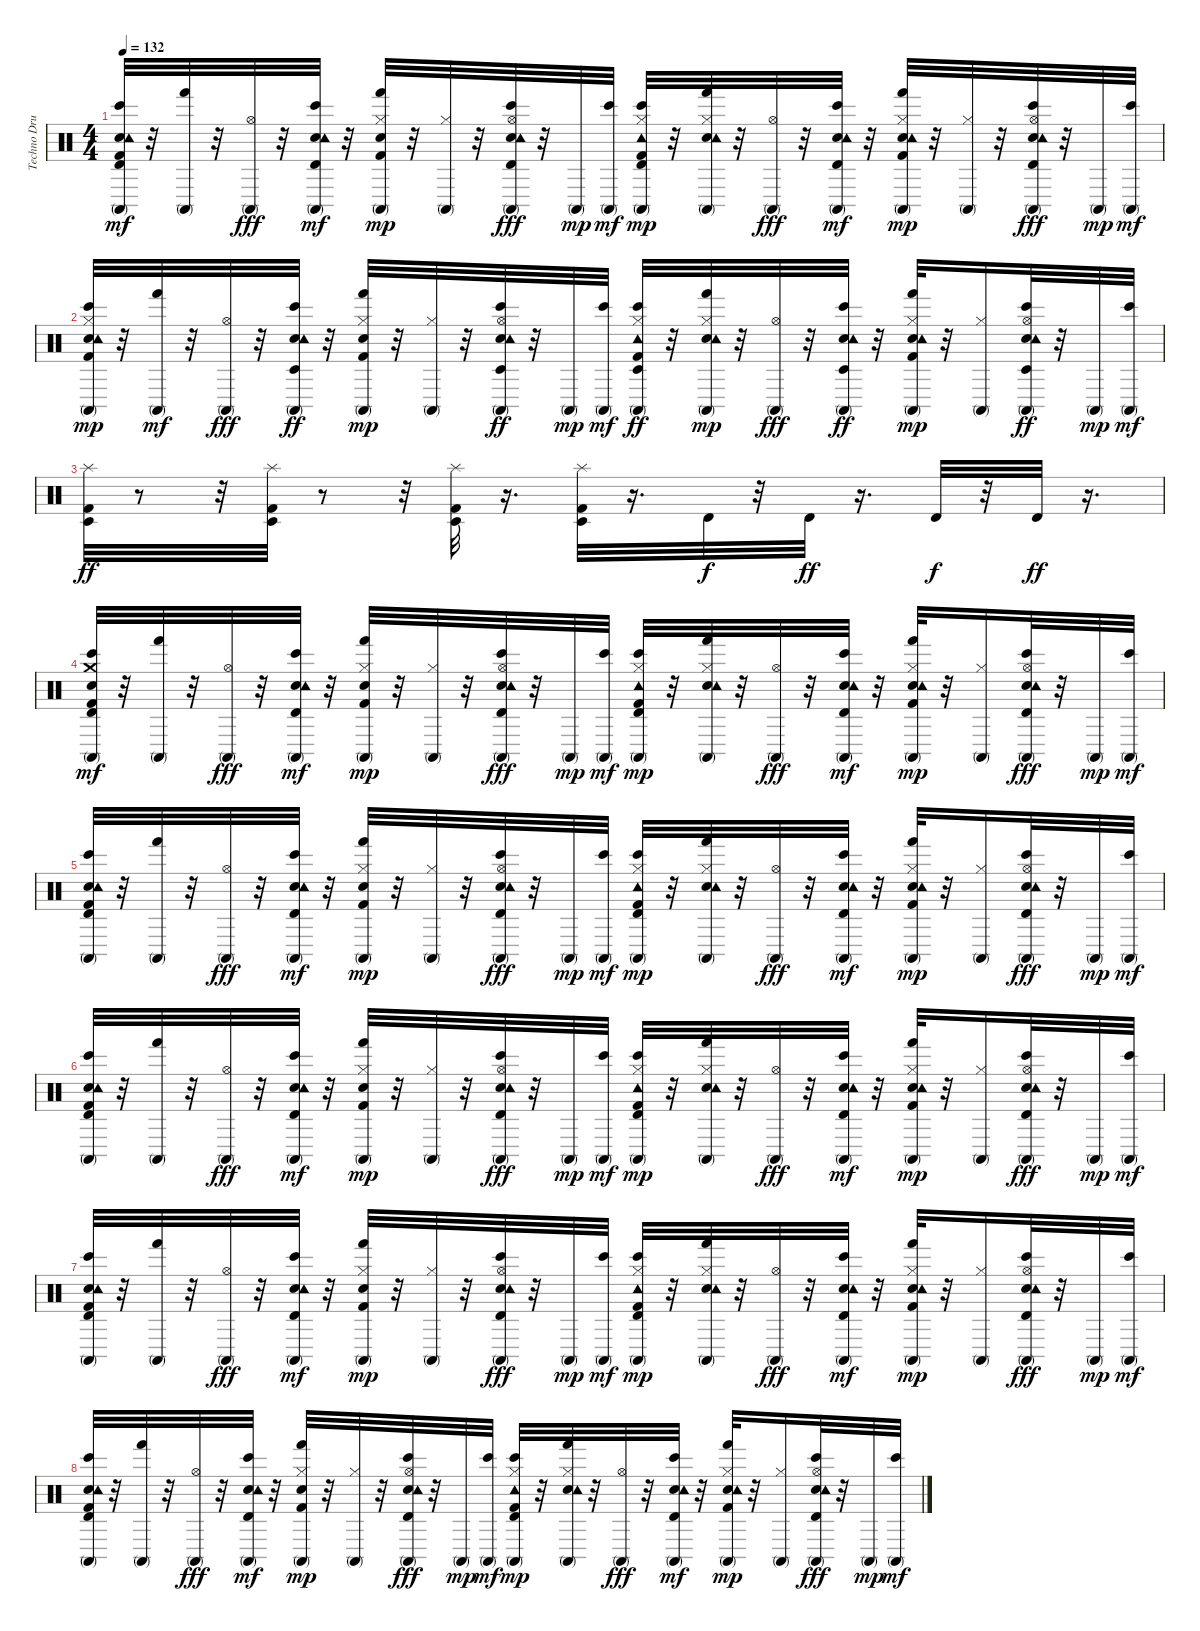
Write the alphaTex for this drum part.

\track ("Techno Drums" "Techno Dru") {instrument percussion}
\staff {score}
\articulation defaults
\ts (4 4)
\tempo 132
\clef neutral
\ks c
("Kick (hit) 2" "Hand Clap (hit)" "Tambourine (hit)" "Conga high (mute)" "Bongo High (hit)" "Timbale high (hit)").32{dy mf} r.32 ("Conga high (mute)" "Hand (hit)").32 r.32 ("Conga high (mute)" "Hi-Hat (open)").32{dy fff} r.32 ("Hand Clap (hit)" "Tambourine (hit)" "Conga high (mute)" "Bongo High (hit)" "Timbale high (hit)").32{dy mf} r.32 ("Kick (hit) 2" "Hand Clap (hit)" "Conga high (mute)" "Hand (hit)" "Hi-Hat (closed)").32{dy mp} r.32 ("Conga high (mute)" "Hi-Hat (closed)").32 r.32 ("Hand Clap (hit)" "Tambourine (hit)" "Conga high (mute)" "Bongo High (hit)" "Timbale high (hit)" "Hi-Hat (open)").32{dy fff} r.32 "Conga high (mute)".32{dy mp} ("Conga high (mute)" "Bongo High (hit)").32{dy mf} ("Kick (hit) 2" "Tambourine (hit)" "Conga high (mute)" "Bongo High (hit)" "Timbale high (hit)" "Hi-Hat (closed)").32{dy mp} r.32 ("Hand Clap (hit)" "Tambourine (hit)" "Conga high (mute)" "Hand (hit)" "Hi-Hat (closed)").32 r.32 ("Conga high (mute)" "Hi-Hat (open)").32{dy fff} r.32 ("Hand Clap (hit)" "Tambourine (hit)" "Conga high (mute)" "Bongo High (hit)" "Timbale high (hit)").32{dy mf} r.32 ("Kick (hit) 2" "Hand Clap (hit)" "Tambourine (hit)" "Conga high (mute)" "Hand (hit)" "Hi-Hat (closed)").32{dy mp} r.32 ("Conga high (mute)" "Hi-Hat (closed)").32 r.32 ("Hand Clap (hit)" "Tambourine (hit)" "Conga high (mute)" "Bongo High (hit)" "Timbale high (hit)" "Hi-Hat (open)").32{dy fff} r.32 "Conga high (mute)".32{dy mp} ("Conga high (mute)" "Bongo High (hit)").32{dy mf} |
("Kick (hit) 2" "Hand Clap (hit)" "Tambourine (hit)" "Conga high (mute)" "Bongo High (hit)" "Hi-Hat (closed)").32{dy mp} r.32 ("Conga high (mute)" "Hand (hit)").32{dy mf} r.32 ("Conga high (mute)" "Hi-Hat (open)").32{dy fff} r.32 ("Hand Clap (hit)" "Tambourine (hit)" "Conga high (mute)" "Bongo High (hit)" "Timbale low (hit)").32{dy ff} r.32 ("Kick (hit) 2" "Hand Clap (hit)" "Conga high (mute)" "Hand (hit)" "Hi-Hat (closed)").32{dy mp} r.32 ("Conga high (mute)" "Hi-Hat (closed)").32 r.32 ("Hand Clap (hit)" "Tambourine (hit)" "Conga high (mute)" "Bongo High (hit)" "Hi-Hat (open)" "Timbale low (hit)").32{dy ff} r.32 "Conga high (mute)".32{dy mp} ("Conga high (mute)" "Bongo High (hit)").32{dy mf} ("Kick (hit) 2" "Tambourine (hit)" "Conga high (mute)" "Bongo High (hit)" "Hi-Hat (closed)" "Timbale low (hit)").32{dy ff} r.32 ("Hand Clap (hit)" "Tambourine (hit)" "Conga high (mute)" "Hand (hit)" "Hi-Hat (closed)").32{dy mp} r.32 ("Conga high (mute)" "Hi-Hat (open)").32{dy fff} r.32 ("Hand Clap (hit)" "Tambourine (hit)" "Conga high (mute)" "Bongo High (hit)" "Timbale low (hit)").32{dy ff} r.32 ("Kick (hit) 2" "Hand Clap (hit)" "Tambourine (hit)" "Conga high (mute)" "Hand (hit)" "Hi-Hat (closed)").32{dy mp} r.32 ("Conga high (mute)" "Hi-Hat (closed)").16 ("Hand Clap (hit)" "Tambourine (hit)" "Conga high (mute)" "Bongo High (hit)" "Hi-Hat (open)" "Timbale low (hit)").32{dy ff} r.32 "Conga high (mute)".32{dy mp} ("Conga high (mute)" "Bongo High (hit)").32{dy mf} |
("Kick (hit) 2" "Timbale low (hit)" "Splash (hit)").32{dy ff} r.8 r.32 ("Kick (hit) 2" "Timbale low (hit)" "Splash (hit)").32 r.8 r.32 ("Kick (hit) 2" "Timbale low (hit)" "Splash (hit)").32 r.16{d} ("Timbale low (hit)" "Splash (hit)" "Kick (hit) 2").32 r.16{d} "Timbale high (hit)".32{dy f} r.32 "Timbale high (hit)".32{dy ff} r.16{d} "Timbale high (hit)".32{dy f} r.32 "Timbale high (hit)".32{dy ff} r.16{d} |
("Kick (hit) 2" "Hand Clap (hit)" "Crash medium (hit)" "Conga high (mute)" "Bongo High (hit)" "Timbale high (hit)").32{dy mf} r.32 ("Conga high (mute)" "Hand (hit)").32 r.32 ("Conga high (mute)" "Hi-Hat (open)").32{dy fff} r.32 ("Hand Clap (hit)" "Tambourine (hit)" "Conga high (mute)" "Bongo High (hit)" "Timbale high (hit)").32{dy mf} r.32 ("Kick (hit) 2" "Hand Clap (hit)" "Conga high (mute)" "Hand (hit)" "Hi-Hat (closed)").32{dy mp} r.32 ("Conga high (mute)" "Hi-Hat (closed)").32 r.32 ("Hand Clap (hit)" "Tambourine (hit)" "Conga high (mute)" "Bongo High (hit)" "Timbale high (hit)" "Hi-Hat (open)").32{dy fff} r.32 "Conga high (mute)".32{dy mp} ("Conga high (mute)" "Bongo High (hit)").32{dy mf} ("Kick (hit) 2" "Tambourine (hit)" "Conga high (mute)" "Bongo High (hit)" "Timbale high (hit)" "Hi-Hat (closed)").32{dy mp} r.32 ("Hand Clap (hit)" "Tambourine (hit)" "Conga high (mute)" "Hand (hit)" "Hi-Hat (closed)").32 r.32 ("Conga high (mute)" "Hi-Hat (open)").32{dy fff} r.32 ("Hand Clap (hit)" "Tambourine (hit)" "Conga high (mute)" "Bongo High (hit)" "Timbale high (hit)").32{dy mf} r.32 ("Kick (hit) 2" "Hand Clap (hit)" "Tambourine (hit)" "Conga high (mute)" "Hand (hit)" "Hi-Hat (closed)").32{dy mp} r.32 ("Conga high (mute)" "Hi-Hat (closed)").16 ("Hand Clap (hit)" "Tambourine (hit)" "Conga high (mute)" "Bongo High (hit)" "Timbale high (hit)" "Hi-Hat (open)").32{dy fff} r.32 "Conga high (mute)".32{dy mp} ("Conga high (mute)" "Bongo High (hit)").32{dy mf} |
("Kick (hit) 2" "Hand Clap (hit)" "Tambourine (hit)" "Conga high (mute)" "Bongo High (hit)" "Timbale high (hit)").32 r.32 ("Conga high (mute)" "Hand (hit)").32 r.32 ("Conga high (mute)" "Hi-Hat (open)").32{dy fff} r.32 ("Hand Clap (hit)" "Tambourine (hit)" "Conga high (mute)" "Bongo High (hit)" "Timbale high (hit)").32{dy mf} r.32 ("Kick (hit) 2" "Hand Clap (hit)" "Conga high (mute)" "Hand (hit)" "Hi-Hat (closed)").32{dy mp} r.32 ("Conga high (mute)" "Hi-Hat (closed)").32 r.32 ("Hand Clap (hit)" "Tambourine (hit)" "Conga high (mute)" "Bongo High (hit)" "Timbale high (hit)" "Hi-Hat (open)").32{dy fff} r.32 "Conga high (mute)".32{dy mp} ("Conga high (mute)" "Bongo High (hit)").32{dy mf} ("Kick (hit) 2" "Tambourine (hit)" "Conga high (mute)" "Bongo High (hit)" "Timbale high (hit)" "Hi-Hat (closed)").32{dy mp} r.32 ("Hand Clap (hit)" "Tambourine (hit)" "Conga high (mute)" "Hand (hit)" "Hi-Hat (closed)").32 r.32 ("Conga high (mute)" "Hi-Hat (open)").32{dy fff} r.32 ("Hand Clap (hit)" "Tambourine (hit)" "Conga high (mute)" "Bongo High (hit)" "Timbale high (hit)").32{dy mf} r.32 ("Kick (hit) 2" "Hand Clap (hit)" "Tambourine (hit)" "Conga high (mute)" "Hand (hit)" "Hi-Hat (closed)").32{dy mp} r.32 ("Conga high (mute)" "Hi-Hat (closed)").16 ("Hand Clap (hit)" "Tambourine (hit)" "Conga high (mute)" "Bongo High (hit)" "Timbale high (hit)" "Hi-Hat (open)").32{dy fff} r.32 "Conga high (mute)".32{dy mp} ("Conga high (mute)" "Bongo High (hit)").32{dy mf} |
("Kick (hit) 2" "Hand Clap (hit)" "Tambourine (hit)" "Conga high (mute)" "Bongo High (hit)" "Timbale high (hit)").32 r.32 ("Conga high (mute)" "Hand (hit)").32 r.32 ("Conga high (mute)" "Hi-Hat (open)").32{dy fff} r.32 ("Hand Clap (hit)" "Tambourine (hit)" "Conga high (mute)" "Bongo High (hit)" "Timbale high (hit)").32{dy mf} r.32 ("Kick (hit) 2" "Hand Clap (hit)" "Conga high (mute)" "Hand (hit)" "Hi-Hat (closed)").32{dy mp} r.32 ("Conga high (mute)" "Hi-Hat (closed)").32 r.32 ("Hand Clap (hit)" "Tambourine (hit)" "Conga high (mute)" "Bongo High (hit)" "Timbale high (hit)" "Hi-Hat (open)").32{dy fff} r.32 "Conga high (mute)".32{dy mp} ("Conga high (mute)" "Bongo High (hit)").32{dy mf} ("Kick (hit) 2" "Tambourine (hit)" "Conga high (mute)" "Bongo High (hit)" "Timbale high (hit)" "Hi-Hat (closed)").32{dy mp} r.32 ("Hand Clap (hit)" "Tambourine (hit)" "Conga high (mute)" "Hand (hit)" "Hi-Hat (closed)").32 r.32 ("Conga high (mute)" "Hi-Hat (open)").32{dy fff} r.32 ("Hand Clap (hit)" "Tambourine (hit)" "Conga high (mute)" "Bongo High (hit)" "Timbale high (hit)").32{dy mf} r.32 ("Kick (hit) 2" "Hand Clap (hit)" "Tambourine (hit)" "Conga high (mute)" "Hand (hit)" "Hi-Hat (closed)").32{dy mp} r.32 ("Conga high (mute)" "Hi-Hat (closed)").16 ("Hand Clap (hit)" "Tambourine (hit)" "Conga high (mute)" "Bongo High (hit)" "Timbale high (hit)" "Hi-Hat (open)").32{dy fff} r.32 "Conga high (mute)".32{dy mp} ("Conga high (mute)" "Bongo High (hit)").32{dy mf} |
("Kick (hit) 2" "Hand Clap (hit)" "Tambourine (hit)" "Conga high (mute)" "Bongo High (hit)" "Timbale high (hit)").32 r.32 ("Conga high (mute)" "Hand (hit)").32 r.32 ("Conga high (mute)" "Hi-Hat (open)").32{dy fff} r.32 ("Hand Clap (hit)" "Tambourine (hit)" "Conga high (mute)" "Bongo High (hit)" "Timbale high (hit)").32{dy mf} r.32 ("Kick (hit) 2" "Hand Clap (hit)" "Conga high (mute)" "Hand (hit)" "Hi-Hat (closed)").32{dy mp} r.32 ("Conga high (mute)" "Hi-Hat (closed)").32 r.32 ("Hand Clap (hit)" "Tambourine (hit)" "Conga high (mute)" "Bongo High (hit)" "Timbale high (hit)" "Hi-Hat (open)").32{dy fff} r.32 "Conga high (mute)".32{dy mp} ("Conga high (mute)" "Bongo High (hit)").32{dy mf} ("Kick (hit) 2" "Tambourine (hit)" "Conga high (mute)" "Bongo High (hit)" "Timbale high (hit)" "Hi-Hat (closed)").32{dy mp} r.32 ("Hand Clap (hit)" "Tambourine (hit)" "Conga high (mute)" "Hand (hit)" "Hi-Hat (closed)").32 r.32 ("Conga high (mute)" "Hi-Hat (open)").32{dy fff} r.32 ("Hand Clap (hit)" "Tambourine (hit)" "Conga high (mute)" "Bongo High (hit)" "Timbale high (hit)").32{dy mf} r.32 ("Kick (hit) 2" "Hand Clap (hit)" "Tambourine (hit)" "Conga high (mute)" "Hand (hit)" "Hi-Hat (closed)").32{dy mp} r.32 ("Conga high (mute)" "Hi-Hat (closed)").16 ("Hand Clap (hit)" "Tambourine (hit)" "Conga high (mute)" "Bongo High (hit)" "Timbale high (hit)" "Hi-Hat (open)").32{dy fff} r.32 "Conga high (mute)".32{dy mp} ("Conga high (mute)" "Bongo High (hit)").32{dy mf} |
("Kick (hit) 2" "Hand Clap (hit)" "Tambourine (hit)" "Conga high (mute)" "Bongo High (hit)" "Timbale high (hit)").32 r.32 ("Conga high (mute)" "Hand (hit)").32 r.32 ("Conga high (mute)" "Hi-Hat (open)").32{dy fff} r.32 ("Hand Clap (hit)" "Tambourine (hit)" "Conga high (mute)" "Bongo High (hit)" "Timbale high (hit)").32{dy mf} r.32 ("Kick (hit) 2" "Hand Clap (hit)" "Conga high (mute)" "Hand (hit)" "Hi-Hat (closed)").32{dy mp} r.32 ("Conga high (mute)" "Hi-Hat (closed)").32 r.32 ("Hand Clap (hit)" "Tambourine (hit)" "Conga high (mute)" "Bongo High (hit)" "Timbale high (hit)" "Hi-Hat (open)").32{dy fff} r.32 "Conga high (mute)".32{dy mp} ("Conga high (mute)" "Bongo High (hit)").32{dy mf} ("Kick (hit) 2" "Tambourine (hit)" "Conga high (mute)" "Bongo High (hit)" "Timbale high (hit)" "Hi-Hat (closed)").32{dy mp} r.32 ("Hand Clap (hit)" "Tambourine (hit)" "Conga high (mute)" "Hand (hit)" "Hi-Hat (closed)").32 r.32 ("Conga high (mute)" "Hi-Hat (open)").32{dy fff} r.32 ("Hand Clap (hit)" "Tambourine (hit)" "Conga high (mute)" "Bongo High (hit)" "Timbale high (hit)").32{dy mf} r.32 ("Kick (hit) 2" "Hand Clap (hit)" "Tambourine (hit)" "Conga high (mute)" "Hand (hit)" "Hi-Hat (closed)").32{dy mp} r.32 ("Conga high (mute)" "Hi-Hat (closed)").16 ("Hand Clap (hit)" "Tambourine (hit)" "Conga high (mute)" "Bongo High (hit)" "Timbale high (hit)" "Hi-Hat (open)").32{dy fff} r.32 "Conga high (mute)".32{dy mp} ("Conga high (mute)" "Bongo High (hit)").32{dy mf}
